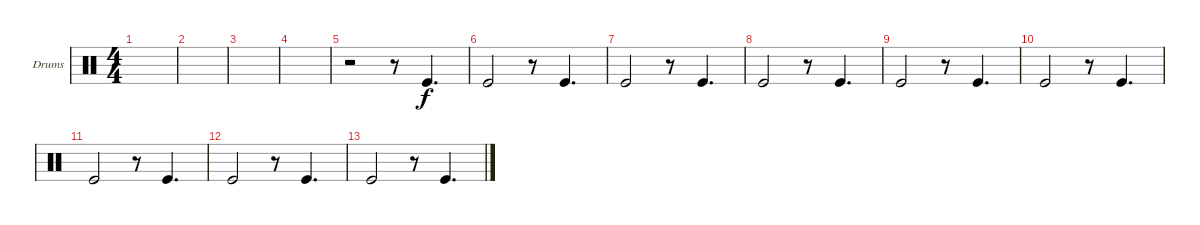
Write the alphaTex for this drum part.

\defaultSystemsLayout 4
\bracketExtendMode groupsimilarinstruments
\firstSystemTrackNameOrientation horizontal
\otherSystemsTrackNameOrientation horizontal
\track ("Drumkit" "Drums") {instrument percussion}
\staff {score}
\articulation defaults
\ts (4 4)
\scale
0.5
\tempo (50 hide)
\tempo (70.9647 0.3875 hide)
\accidentals auto
\clef neutral
\ottava regular
\simile none
\scale
0.333333
\ks c
|
\tempo (86.1059 0.08125 hide)
\tempo (99.5647 0.5875 hide)
|
\tempo (90 hide)
|
|
r.2 r.8 "Kick (hit)".4{d} |
"Kick (hit)".2 r.8 "Kick (hit)".4{d} |
"Kick (hit)".2 r.8 "Kick (hit)".4{d} |
"Kick (hit)".2 r.8 "Kick (hit)".4{d} |
"Kick (hit)".2 r.8 "Kick (hit)".4{d} |
\scale
0.333333 "Kick (hit)".2 r.8 "Kick (hit)".4{d} |
"Kick (hit)".2 r.8 "Kick (hit)".4{d} |
"Kick (hit)".2 r.8 "Kick (hit)".4{d} |
"Kick (hit)".2 r.8 "Kick (hit)".4{d}
